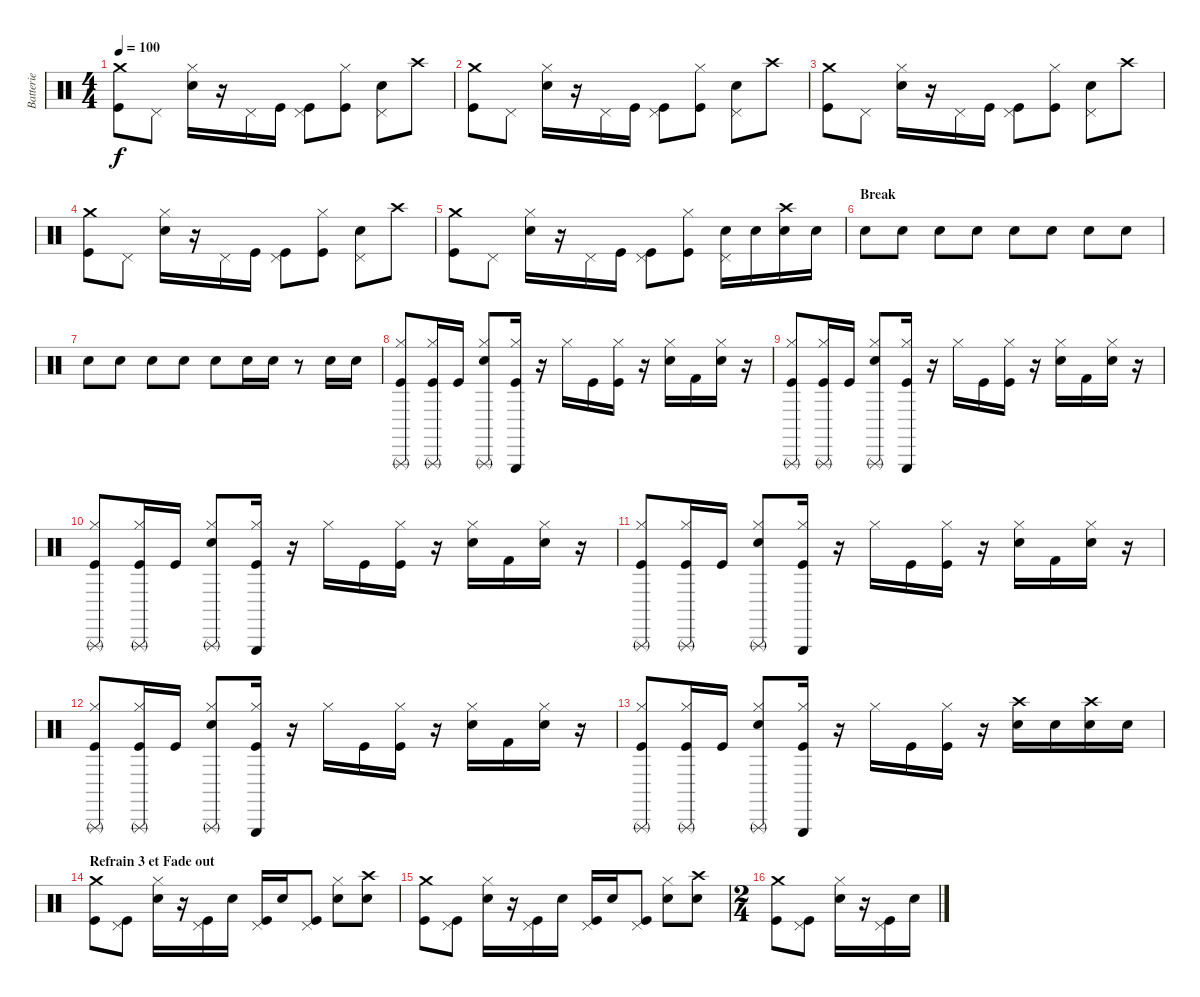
\track ("Batterie" "Batterie") {instrument percussion}
\staff {score}
\articulation defaults
\ts (4 4)
\tempo 100
\clef neutral
\ks c
("Crash medium (hit)" "Kick (hit)").8{dy f} "Pedal Hi-Hat (hit)".8 ("Hi-Hat (closed)" "Electric Snare (hit)").16 r.16 "Pedal Hi-Hat (hit)".16 "Kick (hit)".16 ("Pedal Hi-Hat (hit)" "Kick (hit)").8 ("Hi-Hat (closed)" "Kick (hit)").8 ("Pedal Hi-Hat (hit)" "Electric Snare (hit)").8 "Crash high (hit)".8 |
("Crash medium (hit)" "Kick (hit)").8 "Pedal Hi-Hat (hit)".8 ("Hi-Hat (closed)" "Electric Snare (hit)").16 r.16 "Pedal Hi-Hat (hit)".16 "Kick (hit)".16 ("Pedal Hi-Hat (hit)" "Kick (hit)").8 ("Hi-Hat (closed)" "Kick (hit)").8 ("Pedal Hi-Hat (hit)" "Electric Snare (hit)").8 "Crash high (hit)".8 |
("Crash medium (hit)" "Kick (hit)").8 "Pedal Hi-Hat (hit)".8 ("Hi-Hat (closed)" "Electric Snare (hit)").16 r.16 "Pedal Hi-Hat (hit)".16 "Kick (hit)".16 ("Pedal Hi-Hat (hit)" "Kick (hit)").8 ("Hi-Hat (closed)" "Kick (hit)").8 ("Pedal Hi-Hat (hit)" "Electric Snare (hit)").8 "Crash high (hit)".8 |
("Crash medium (hit)" "Kick (hit)").8 "Pedal Hi-Hat (hit)".8 ("Hi-Hat (closed)" "Electric Snare (hit)").16 r.16 "Pedal Hi-Hat (hit)".16 "Kick (hit)".16 ("Pedal Hi-Hat (hit)" "Kick (hit)").8 ("Hi-Hat (closed)" "Kick (hit)").8 ("Pedal Hi-Hat (hit)" "Electric Snare (hit)").8 "Crash high (hit)".8 |
("Crash medium (hit)" "Kick (hit)").8 "Pedal Hi-Hat (hit)".8 ("Hi-Hat (closed)" "Electric Snare (hit)").16 r.16 "Pedal Hi-Hat (hit)".16 "Kick (hit)".16 ("Pedal Hi-Hat (hit)" "Kick (hit)").8 ("Hi-Hat (closed)" "Kick (hit)").8 ("Pedal Hi-Hat (hit)" "Electric Snare (hit)").16 "Electric Snare (hit)".16 ("Crash high (hit)" "Electric Snare (hit)").16 "Electric Snare (hit)".16 |
\section ("" "Break")
"Electric Snare (hit)".8 "Electric Snare (hit)".8 "Electric Snare (hit)".8 "Electric Snare (hit)".8 "Electric Snare (hit)".8 "Electric Snare (hit)".8 "Electric Snare (hit)".8 "Electric Snare (hit)".8 |
"Electric Snare (hit)".8 "Electric Snare (hit)".8 "Electric Snare (hit)".8 "Electric Snare (hit)".8 "Electric Snare (hit)".8 "Electric Snare (hit)".16 "Electric Snare (hit)".16 r.8 "Electric Snare (hit)".16 "Electric Snare (hit)".16 |
("Hi-Hat (closed)" "Triangle (rnute)" "Kick (hit)").8 ("Hi-Hat (closed)" "Triangle (rnute)" "Kick (hit)").16 "Kick (hit)".16 ("Hi-Hat (closed)" "Triangle (rnute)" "Electric Snare (hit)").8 ("Hi-Hat (closed)" "Triangle (hit)" "Kick (hit)").16 r.16 "Hi-Hat (closed)".16 "Kick (hit)".16 ("Hi-Hat (closed)" "Kick (hit)").16 r.16 ("Hi-Hat (closed)" "Electric Snare (hit)").16 "Kick (hit) 2".16 ("Hi-Hat (closed)" "Electric Snare (hit)").16 r.16 |
("Hi-Hat (closed)" "Triangle (rnute)" "Kick (hit)").8 ("Hi-Hat (closed)" "Triangle (rnute)" "Kick (hit)").16 "Kick (hit)".16 ("Hi-Hat (closed)" "Triangle (rnute)" "Electric Snare (hit)").8 ("Hi-Hat (closed)" "Triangle (hit)" "Kick (hit)").16 r.16 "Hi-Hat (closed)".16 "Kick (hit)".16 ("Hi-Hat (closed)" "Kick (hit)").16 r.16 ("Hi-Hat (closed)" "Electric Snare (hit)").16 "Kick (hit) 2".16 ("Hi-Hat (closed)" "Electric Snare (hit)").16 r.16 |
("Hi-Hat (closed)" "Triangle (rnute)" "Kick (hit)").8 ("Hi-Hat (closed)" "Triangle (rnute)" "Kick (hit)").16 "Kick (hit)".16 ("Hi-Hat (closed)" "Triangle (rnute)" "Electric Snare (hit)").8 ("Hi-Hat (closed)" "Triangle (hit)" "Kick (hit)").16 r.16 "Hi-Hat (closed)".16 "Kick (hit)".16 ("Hi-Hat (closed)" "Kick (hit)").16 r.16 ("Hi-Hat (closed)" "Electric Snare (hit)").16 "Kick (hit) 2".16 ("Hi-Hat (closed)" "Electric Snare (hit)").16 r.16 |
("Hi-Hat (closed)" "Triangle (rnute)" "Kick (hit)").8 ("Hi-Hat (closed)" "Triangle (rnute)" "Kick (hit)").16 "Kick (hit)".16 ("Hi-Hat (closed)" "Triangle (rnute)" "Electric Snare (hit)").8 ("Hi-Hat (closed)" "Triangle (hit)" "Kick (hit)").16 r.16 "Hi-Hat (closed)".16 "Kick (hit)".16 ("Hi-Hat (closed)" "Kick (hit)").16 r.16 ("Hi-Hat (closed)" "Electric Snare (hit)").16 "Kick (hit) 2".16 ("Hi-Hat (closed)" "Electric Snare (hit)").16 r.16 |
("Hi-Hat (closed)" "Triangle (rnute)" "Kick (hit)").8 ("Hi-Hat (closed)" "Triangle (rnute)" "Kick (hit)").16 "Kick (hit)".16 ("Hi-Hat (closed)" "Triangle (rnute)" "Electric Snare (hit)").8 ("Hi-Hat (closed)" "Triangle (hit)" "Kick (hit)").16 r.16 "Hi-Hat (closed)".16 "Kick (hit)".16 ("Hi-Hat (closed)" "Kick (hit)").16 r.16 ("Hi-Hat (closed)" "Electric Snare (hit)").16 "Kick (hit) 2".16 ("Hi-Hat (closed)" "Electric Snare (hit)").16 r.16 |
("Hi-Hat (closed)" "Triangle (rnute)" "Kick (hit)").8 ("Hi-Hat (closed)" "Triangle (rnute)" "Kick (hit)").16 "Kick (hit)".16 ("Hi-Hat (closed)" "Triangle (rnute)" "Electric Snare (hit)").8 ("Hi-Hat (closed)" "Triangle (hit)" "Kick (hit)").16 r.16 "Hi-Hat (closed)".16 "Kick (hit)".16 ("Hi-Hat (closed)" "Kick (hit)").16 r.16 ("Crash high (hit)" "Electric Snare (hit)").16 "Electric Snare (hit)".16 ("Crash high (hit)" "Electric Snare (hit)").16 "Electric Snare (hit)".16 |
\section ("" "Refrain 3 et Fade out")
("Crash medium (hit)" "Kick (hit)").8 ("Pedal Hi-Hat (hit)" "Kick (hit)").8 ("Hi-Hat (closed)" "Electric Snare (hit)").16 r.16 ("Pedal Hi-Hat (hit)" "Kick (hit)").16 "Electric Snare (hit)".16 ("Pedal Hi-Hat (hit)" "Kick (hit)").16 "Electric Snare (hit)".16 ("Pedal Hi-Hat (hit)" "Kick (hit)").8 ("Hi-Hat (closed)" "Electric Snare (hit)").8 ("Crash high (hit)" "Electric Snare (hit)").8 |
("Crash medium (hit)" "Kick (hit)").8 ("Pedal Hi-Hat (hit)" "Kick (hit)").8 ("Hi-Hat (closed)" "Electric Snare (hit)").16 r.16 ("Pedal Hi-Hat (hit)" "Kick (hit)").16 "Electric Snare (hit)".16 ("Pedal Hi-Hat (hit)" "Kick (hit)").16 "Electric Snare (hit)".16 ("Pedal Hi-Hat (hit)" "Kick (hit)").8 ("Hi-Hat (closed)" "Electric Snare (hit)").8 ("Crash high (hit)" "Electric Snare (hit)").8 |
\ts (2 4)
("Crash medium (hit)" "Kick (hit)").8 ("Pedal Hi-Hat (hit)" "Kick (hit)").8 ("Hi-Hat (closed)" "Electric Snare (hit)").16 r.16 ("Pedal Hi-Hat (hit)" "Kick (hit)").16 "Electric Snare (hit)".16
